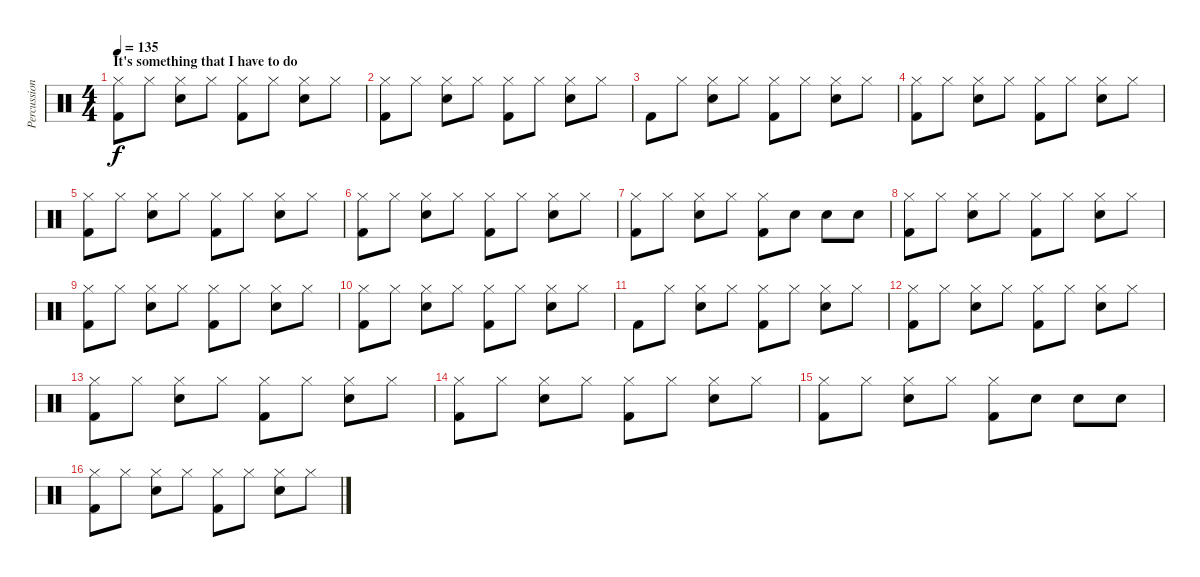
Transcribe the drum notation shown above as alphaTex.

\track ("Percussions" "Percussion") {instrument percussion}
\staff {score}
\articulation defaults
\ts (4 4)
\section ("" "It's something that I have to do")
\tempo 135
\clef neutral
\ks c
("Hi-Hat (closed)" "Kick (hit) 2").8{dy f} "Hi-Hat (closed)".8 ("Hi-Hat (closed)" "Snare (hit) 2").8 "Hi-Hat (closed)".8 ("Hi-Hat (closed)" "Kick (hit) 2").8 "Hi-Hat (closed)".8 ("Hi-Hat (closed)" "Snare (hit) 2").8 "Hi-Hat (closed)".8 |
("Hi-Hat (closed)" "Kick (hit) 2").8 "Hi-Hat (closed)".8 ("Hi-Hat (closed)" "Snare (hit) 2").8 "Hi-Hat (closed)".8 ("Hi-Hat (closed)" "Kick (hit) 2").8 "Hi-Hat (closed)".8 ("Hi-Hat (closed)" "Snare (hit) 2").8 "Hi-Hat (closed)".8 |
"Kick (hit) 2".8 "Hi-Hat (closed)".8 ("Hi-Hat (closed)" "Snare (hit) 2").8 "Hi-Hat (closed)".8 ("Hi-Hat (closed)" "Kick (hit) 2").8 "Hi-Hat (closed)".8 ("Hi-Hat (closed)" "Snare (hit) 2").8 "Hi-Hat (closed)".8 |
("Kick (hit) 2" "Hi-Hat (closed)").8 "Hi-Hat (closed)".8 ("Hi-Hat (closed)" "Snare (hit) 2").8 "Hi-Hat (closed)".8 ("Hi-Hat (closed)" "Kick (hit) 2").8 "Hi-Hat (closed)".8 ("Hi-Hat (closed)" "Snare (hit) 2").8 "Hi-Hat (closed)".8 |
("Kick (hit) 2" "Hi-Hat (closed)").8 "Hi-Hat (closed)".8 ("Hi-Hat (closed)" "Snare (hit) 2").8 "Hi-Hat (closed)".8 ("Hi-Hat (closed)" "Kick (hit) 2").8 "Hi-Hat (closed)".8 ("Hi-Hat (closed)" "Snare (hit) 2").8 "Hi-Hat (closed)".8 |
("Kick (hit) 2" "Hi-Hat (closed)").8 "Hi-Hat (closed)".8 ("Hi-Hat (closed)" "Snare (hit) 2").8 "Hi-Hat (closed)".8 ("Hi-Hat (closed)" "Kick (hit) 2").8 "Hi-Hat (closed)".8 ("Hi-Hat (closed)" "Snare (hit) 2").8 "Hi-Hat (closed)".8 |
("Hi-Hat (closed)" "Kick (hit) 2").8 "Hi-Hat (closed)".8 ("Hi-Hat (closed)" "Snare (hit) 2").8 "Hi-Hat (closed)".8 ("Hi-Hat (closed)" "Kick (hit) 2").8 "Snare (hit) 2".8 "Snare (hit) 2".8 "Snare (hit) 2".8 |
("Kick (hit) 2" "Hi-Hat (closed)").8 "Hi-Hat (closed)".8 ("Hi-Hat (closed)" "Snare (hit) 2").8 "Hi-Hat (closed)".8 ("Hi-Hat (closed)" "Kick (hit) 2").8 "Hi-Hat (closed)".8 ("Hi-Hat (closed)" "Snare (hit) 2").8 "Hi-Hat (closed)".8 |
("Kick (hit) 2" "Hi-Hat (closed)").8 "Hi-Hat (closed)".8 ("Hi-Hat (closed)" "Snare (hit) 2").8 "Hi-Hat (closed)".8 ("Hi-Hat (closed)" "Kick (hit) 2").8 "Hi-Hat (closed)".8 ("Hi-Hat (closed)" "Snare (hit) 2").8 "Hi-Hat (closed)".8 |
("Hi-Hat (closed)" "Kick (hit) 2").8 "Hi-Hat (closed)".8 ("Hi-Hat (closed)" "Snare (hit) 2").8 "Hi-Hat (closed)".8 ("Hi-Hat (closed)" "Kick (hit) 2").8 "Hi-Hat (closed)".8 ("Hi-Hat (closed)" "Snare (hit) 2").8 "Hi-Hat (closed)".8 |
"Kick (hit) 2".8 "Hi-Hat (closed)".8 ("Hi-Hat (closed)" "Snare (hit) 2").8 "Hi-Hat (closed)".8 ("Hi-Hat (closed)" "Kick (hit) 2").8 "Hi-Hat (closed)".8 ("Hi-Hat (closed)" "Snare (hit) 2").8 "Hi-Hat (closed)".8 |
("Kick (hit) 2" "Hi-Hat (closed)").8 "Hi-Hat (closed)".8 ("Hi-Hat (closed)" "Snare (hit) 2").8 "Hi-Hat (closed)".8 ("Hi-Hat (closed)" "Kick (hit) 2").8 "Hi-Hat (closed)".8 ("Hi-Hat (closed)" "Snare (hit) 2").8 "Hi-Hat (closed)".8 |
("Kick (hit) 2" "Hi-Hat (closed)").8 "Hi-Hat (closed)".8 ("Hi-Hat (closed)" "Snare (hit) 2").8 "Hi-Hat (closed)".8 ("Hi-Hat (closed)" "Kick (hit) 2").8 "Hi-Hat (closed)".8 ("Hi-Hat (closed)" "Snare (hit) 2").8 "Hi-Hat (closed)".8 |
("Kick (hit) 2" "Hi-Hat (closed)").8 "Hi-Hat (closed)".8 ("Hi-Hat (closed)" "Snare (hit) 2").8 "Hi-Hat (closed)".8 ("Hi-Hat (closed)" "Kick (hit) 2").8 "Hi-Hat (closed)".8 ("Hi-Hat (closed)" "Snare (hit) 2").8 "Hi-Hat (closed)".8 |
("Hi-Hat (closed)" "Kick (hit) 2").8 "Hi-Hat (closed)".8 ("Hi-Hat (closed)" "Snare (hit) 2").8 "Hi-Hat (closed)".8 ("Hi-Hat (closed)" "Kick (hit) 2").8 "Snare (hit) 2".8 "Snare (hit) 2".8 "Snare (hit) 2".8 |
("Kick (hit) 2" "Hi-Hat (closed)").8 "Hi-Hat (closed)".8 ("Hi-Hat (closed)" "Snare (hit) 2").8 "Hi-Hat (closed)".8 ("Hi-Hat (closed)" "Kick (hit) 2").8 "Hi-Hat (closed)".8 ("Hi-Hat (closed)" "Snare (hit) 2").8 "Hi-Hat (closed)".8
